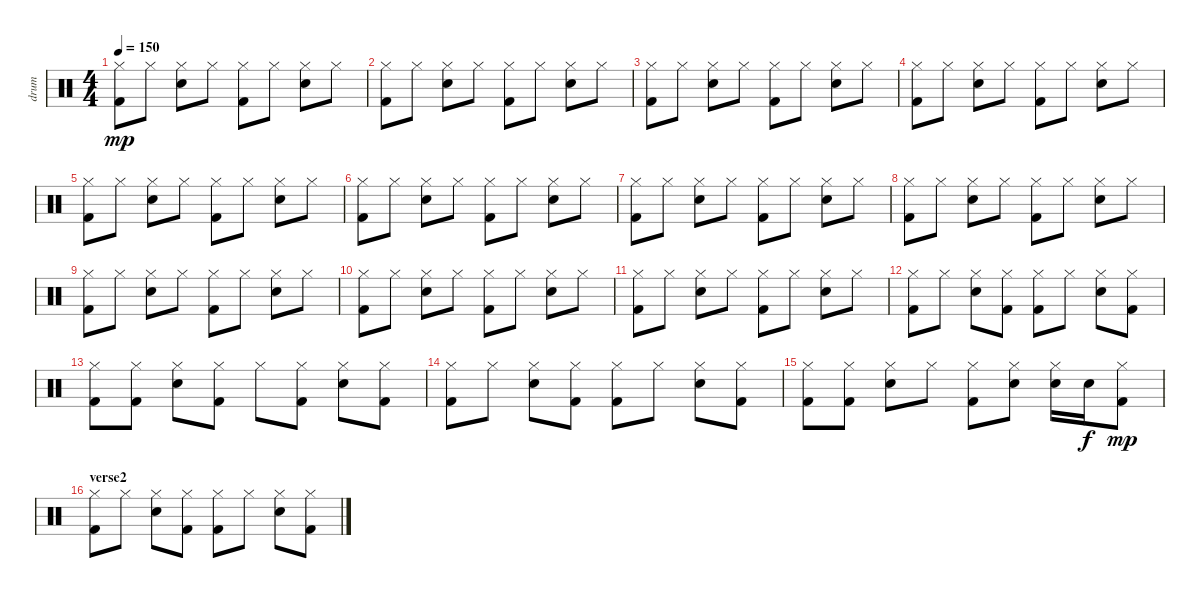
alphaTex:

\track ("drum" "drum") {instrument percussion}
\staff {score}
\articulation defaults
\ts (4 4)
\tempo 150
\clef neutral
\ks c
("Hi-Hat (closed)" "Kick (hit) 2").8{dy mp} "Hi-Hat (closed)".8 ("Hi-Hat (closed)" "Electric Snare (hit)").8 "Hi-Hat (closed)".8 ("Hi-Hat (closed)" "Kick (hit) 2").8 "Hi-Hat (closed)".8 ("Hi-Hat (closed)" "Electric Snare (hit)").8 "Hi-Hat (closed)".8 |
("Hi-Hat (closed)" "Kick (hit) 2").8 "Hi-Hat (closed)".8 ("Hi-Hat (closed)" "Electric Snare (hit)").8 "Hi-Hat (closed)".8 ("Hi-Hat (closed)" "Kick (hit) 2").8 "Hi-Hat (closed)".8 ("Hi-Hat (closed)" "Electric Snare (hit)").8 "Hi-Hat (closed)".8 |
("Hi-Hat (closed)" "Kick (hit) 2").8 "Hi-Hat (closed)".8 ("Hi-Hat (closed)" "Electric Snare (hit)").8 "Hi-Hat (closed)".8 ("Hi-Hat (closed)" "Kick (hit) 2").8 "Hi-Hat (closed)".8 ("Hi-Hat (closed)" "Electric Snare (hit)").8 "Hi-Hat (closed)".8 |
("Hi-Hat (closed)" "Kick (hit) 2").8 "Hi-Hat (closed)".8 ("Hi-Hat (closed)" "Electric Snare (hit)").8 "Hi-Hat (closed)".8 ("Hi-Hat (closed)" "Kick (hit) 2").8 "Hi-Hat (closed)".8 ("Hi-Hat (closed)" "Electric Snare (hit)").8 "Hi-Hat (closed)".8 |
("Hi-Hat (closed)" "Kick (hit) 2").8 "Hi-Hat (closed)".8 ("Hi-Hat (closed)" "Electric Snare (hit)").8 "Hi-Hat (closed)".8 ("Hi-Hat (closed)" "Kick (hit) 2").8 "Hi-Hat (closed)".8 ("Hi-Hat (closed)" "Electric Snare (hit)").8 "Hi-Hat (closed)".8 |
("Hi-Hat (closed)" "Kick (hit) 2").8 "Hi-Hat (closed)".8 ("Hi-Hat (closed)" "Electric Snare (hit)").8 "Hi-Hat (closed)".8 ("Hi-Hat (closed)" "Kick (hit) 2").8 "Hi-Hat (closed)".8 ("Hi-Hat (closed)" "Electric Snare (hit)").8 "Hi-Hat (closed)".8 |
("Hi-Hat (closed)" "Kick (hit) 2").8 "Hi-Hat (closed)".8 ("Hi-Hat (closed)" "Electric Snare (hit)").8 "Hi-Hat (closed)".8 ("Hi-Hat (closed)" "Kick (hit) 2").8 "Hi-Hat (closed)".8 ("Hi-Hat (closed)" "Electric Snare (hit)").8 "Hi-Hat (closed)".8 |
("Hi-Hat (closed)" "Kick (hit) 2").8 "Hi-Hat (closed)".8 ("Hi-Hat (closed)" "Electric Snare (hit)").8 "Hi-Hat (closed)".8 ("Hi-Hat (closed)" "Kick (hit) 2").8 "Hi-Hat (closed)".8 ("Hi-Hat (closed)" "Electric Snare (hit)").8 "Hi-Hat (closed)".8 |
("Hi-Hat (closed)" "Kick (hit) 2").8 "Hi-Hat (closed)".8 ("Hi-Hat (closed)" "Electric Snare (hit)").8 "Hi-Hat (closed)".8 ("Hi-Hat (closed)" "Kick (hit) 2").8 "Hi-Hat (closed)".8 ("Hi-Hat (closed)" "Electric Snare (hit)").8 "Hi-Hat (closed)".8 |
("Hi-Hat (closed)" "Kick (hit) 2").8 "Hi-Hat (closed)".8 ("Hi-Hat (closed)" "Electric Snare (hit)").8 "Hi-Hat (closed)".8 ("Hi-Hat (closed)" "Kick (hit) 2").8 "Hi-Hat (closed)".8 ("Hi-Hat (closed)" "Electric Snare (hit)").8 "Hi-Hat (closed)".8 |
("Hi-Hat (closed)" "Kick (hit) 2").8 "Hi-Hat (closed)".8 ("Hi-Hat (closed)" "Electric Snare (hit)").8 "Hi-Hat (closed)".8 ("Hi-Hat (closed)" "Kick (hit) 2").8 "Hi-Hat (closed)".8 ("Hi-Hat (closed)" "Electric Snare (hit)").8 "Hi-Hat (closed)".8 |
("Hi-Hat (closed)" "Kick (hit) 2").8 "Hi-Hat (closed)".8 ("Hi-Hat (closed)" "Electric Snare (hit)").8 ("Hi-Hat (closed)" "Kick (hit) 2").8 ("Hi-Hat (closed)" "Kick (hit) 2").8 "Hi-Hat (closed)".8 ("Hi-Hat (closed)" "Electric Snare (hit)").8 ("Hi-Hat (closed)" "Kick (hit) 2").8 |
("Hi-Hat (closed)" "Kick (hit) 2").8 ("Hi-Hat (closed)" "Kick (hit) 2").8 ("Hi-Hat (closed)" "Electric Snare (hit)").8 ("Hi-Hat (closed)" "Kick (hit) 2").8 "Hi-Hat (closed)".8 ("Hi-Hat (closed)" "Kick (hit) 2").8 ("Hi-Hat (closed)" "Electric Snare (hit)").8 ("Hi-Hat (closed)" "Kick (hit) 2").8 |
("Hi-Hat (closed)" "Kick (hit) 2").8 "Hi-Hat (closed)".8 ("Hi-Hat (closed)" "Electric Snare (hit)").8 ("Hi-Hat (closed)" "Kick (hit) 2").8 ("Hi-Hat (closed)" "Kick (hit) 2").8 "Hi-Hat (closed)".8 ("Hi-Hat (closed)" "Electric Snare (hit)").8 ("Hi-Hat (closed)" "Kick (hit) 2").8 |
("Hi-Hat (closed)" "Kick (hit) 2").8 ("Hi-Hat (closed)" "Kick (hit) 2").8 ("Hi-Hat (closed)" "Electric Snare (hit)").8 "Hi-Hat (closed)".8 ("Hi-Hat (closed)" "Kick (hit) 2").8 ("Hi-Hat (closed)" "Electric Snare (hit)").8 ("Hi-Hat (closed)" "Electric Snare (hit)").16 "Electric Snare (hit)".16{dy f} ("Hi-Hat (closed)" "Kick (hit) 2").8{dy mp} |
\section ("" "verse2")
("Hi-Hat (closed)" "Kick (hit) 2").8 "Hi-Hat (closed)".8 ("Hi-Hat (closed)" "Electric Snare (hit)").8 ("Hi-Hat (closed)" "Kick (hit) 2").8 ("Hi-Hat (closed)" "Kick (hit) 2").8 "Hi-Hat (closed)".8 ("Hi-Hat (closed)" "Electric Snare (hit)").8 ("Hi-Hat (closed)" "Kick (hit) 2").8
